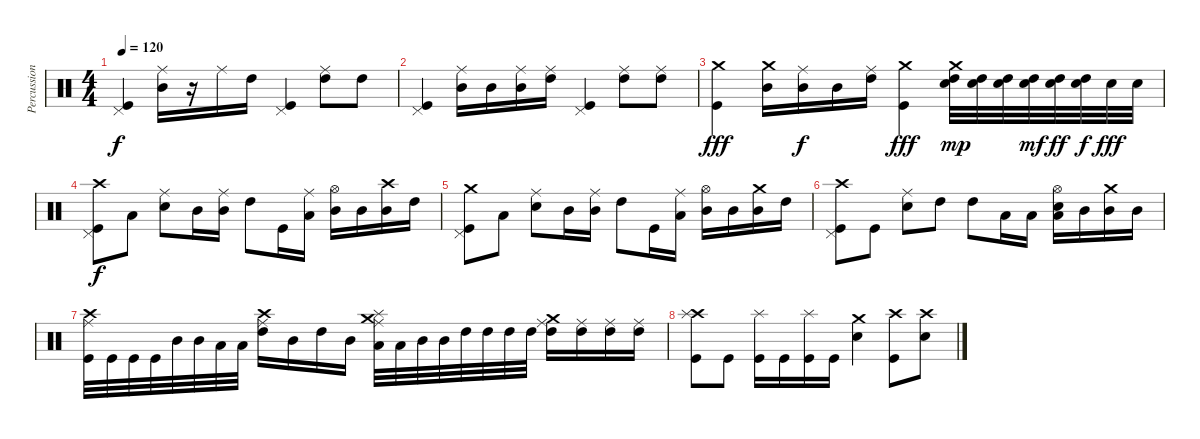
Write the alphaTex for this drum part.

\track ("Percussions" "Percussion") {instrument percussion}
\staff {score}
\articulation defaults
\ts (4 4)
\tempo 120
\clef neutral
\ks c
("Pedal Hi-Hat (hit)" "Kick (hit)").4{dy f} ("Ride (middle)" "Mid Tom (hit)").16 r.16 "Ride (middle)".16 "High Tom (hit)".16 ("Pedal Hi-Hat (hit)" "Kick (hit)").4 ("Ride (middle)" "High Tom (hit)").8 "High Tom (hit)".8 |
("Pedal Hi-Hat (hit)" "Kick (hit)").4 ("Ride (middle)" "Mid Tom (hit)").16 "Mid Tom (hit)".16 ("Ride (middle)" "Mid Tom (hit)").16 ("Ride (middle)" "High Tom (hit)").16 ("Pedal Hi-Hat (hit)" "Kick (hit)").4 ("Ride (middle)" "High Tom (hit)").8 ("Ride (middle)" "High Tom (hit)").8 |
("Crash medium (hit)" "Kick (hit)").4{dy fff} ("Crash medium (hit)" "Mid Tom (hit)").16 ("Ride (middle)" "Mid Tom (hit)").16{dy f} "Mid Tom (hit)".16 ("Ride (middle)" "High Tom (hit)").16 ("Crash medium (hit)" "Kick (hit)").4{dy fff} ("Crash medium (hit)" "High Tom (hit)" "Snare (hit) 2").32{dy mp} ("High Tom (hit)" "Snare (hit) 2").32 ("High Tom (hit)" "Snare (hit) 2").32 ("High Tom (hit)" "Snare (hit) 2").32{dy mf} ("High Tom (hit)" "Snare (hit) 2").32{dy ff} ("High Tom (hit)" "Snare (hit) 2").32{dy f} "Snare (hit) 2".32{dy fff} "Snare (hit) 2".32 |
("Pedal Hi-Hat (hit)" "Crash high (hit)" "Kick (hit)").8{dy f} "Low Tom (hit)".8 ("Ride (middle)" "Snare (hit) 2").8 "Mid Tom (hit)".16 ("Ride (middle)" "Mid Tom (hit)").16 "High Tom (hit)".8 "Kick (hit)".16 ("Ride (middle)" "Low Tom (hit)").16 ("Hi-Hat (open)" "Mid Tom (hit)").16 "Mid Tom (hit)".16 ("Crash high (hit)" "Mid Tom (hit)").16 "High Tom (hit)".16 |
("Pedal Hi-Hat (hit)" "Crash medium (hit)" "Kick (hit)").8 "Low Tom (hit)".8 ("Ride (middle)" "Snare (hit) 2").8 "Mid Tom (hit)".16 ("Ride (middle)" "Mid Tom (hit)").16 "High Tom (hit)".8 "Kick (hit)".16 ("Ride (middle)" "Low Tom (hit)").16 ("Hi-Hat (open)" "Mid Tom (hit)").16 "Mid Tom (hit)".16 ("Crash medium (hit)" "Mid Tom (hit)").16 "High Tom (hit)".16 |
("Pedal Hi-Hat (hit)" "Crash high (hit)" "Kick (hit)").8 "Kick (hit)".8 ("Ride (middle)" "Snare (hit) 2").8 "High Tom (hit)".8 "High Tom (hit)".8 "Low Tom (hit)".16 "Low Tom (hit)".16 ("Hi-Hat (open)" "Low Tom (hit)" "Snare (hit) 2").16 "Mid Tom (hit)".16 ("Crash medium (hit)" "Mid Tom (hit)").16 "Mid Tom (hit)".16 |
("Ride (middle)" "Crash high (hit)" "Kick (hit)").32 "Kick (hit)".32 "Kick (hit)".32 "Kick (hit)".32 "Mid Tom (hit)".32 "Mid Tom (hit)".32 "Low Tom (hit)".32 "Low Tom (hit)".32 ("Ride (middle)" "Crash high (hit)" "High Tom (hit)").16 "Mid Tom (hit)".16 "High Tom (hit)".16 "Mid Tom (hit)".16 ("Ride (middle)" "Splash (hit)" "Low Tom (hit)" "Crash medium (hit)").32 "Low Tom (hit)".32 "Mid Tom (hit)".32 "Mid Tom (hit)".32 "High Tom (hit)".32 "High Tom (hit)".32 "High Tom (hit)".32 "High Tom (hit)".32 ("Ride (middle)" "High Tom (hit)" "Crash medium (hit)").16 ("Ride (middle)" "High Tom (hit)").16 ("Ride (middle)" "High Tom (hit)").16 ("Ride (middle)" "High Tom (hit)").16 |
("Crash high (hit)" "Splash (hit)" "Kick (hit)").8 "Kick (hit)".8 ("Splash (hit)" "Kick (hit)").16 "Kick (hit)".16 ("Splash (hit)" "Kick (hit)").16 "Kick (hit)".16 ("Crash medium (hit)" "Snare (hit) 2").4 ("Crash high (hit)" "Kick (hit)").8 ("Crash high (hit)" "Snare (hit) 2").8
